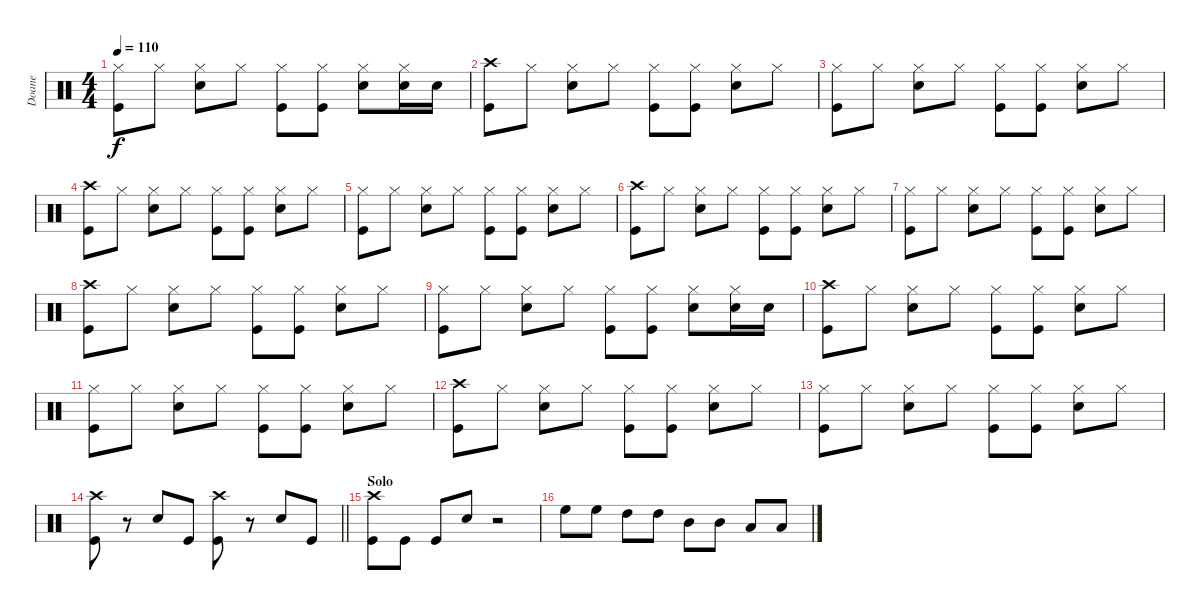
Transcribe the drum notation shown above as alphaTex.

\track ("Doane" "Doane") {instrument percussion}
\staff {score}
\articulation defaults
\ts (4 4)
\tempo 110
\clef neutral
\ks c
("Hi-Hat (closed)" "Kick (hit)").8{dy f} "Hi-Hat (closed)".8 ("Hi-Hat (closed)" "Snare (hit) 2").8 "Hi-Hat (closed)".8 ("Hi-Hat (closed)" "Kick (hit)").8 ("Hi-Hat (closed)" "Kick (hit)").8 ("Hi-Hat (closed)" "Snare (hit) 2").8 ("Hi-Hat (closed)" "Snare (hit) 2").16 "Snare (hit) 2".16 |
("Crash high (hit)" "Kick (hit)").8 "Hi-Hat (closed)".8 ("Hi-Hat (closed)" "Snare (hit) 2").8 "Hi-Hat (closed)".8 ("Hi-Hat (closed)" "Kick (hit)").8 ("Hi-Hat (closed)" "Kick (hit)").8 ("Hi-Hat (closed)" "Snare (hit) 2").8 "Hi-Hat (closed)".8 |
("Hi-Hat (closed)" "Kick (hit)").8 "Hi-Hat (closed)".8 ("Hi-Hat (closed)" "Snare (hit) 2").8 "Hi-Hat (closed)".8 ("Hi-Hat (closed)" "Kick (hit)").8 ("Hi-Hat (closed)" "Kick (hit)").8 ("Hi-Hat (closed)" "Snare (hit) 2").8 "Hi-Hat (closed)".8 |
("Crash high (hit)" "Kick (hit)").8 "Hi-Hat (closed)".8 ("Hi-Hat (closed)" "Snare (hit) 2").8 "Hi-Hat (closed)".8 ("Hi-Hat (closed)" "Kick (hit)").8 ("Hi-Hat (closed)" "Kick (hit)").8 ("Hi-Hat (closed)" "Snare (hit) 2").8 "Hi-Hat (closed)".8 |
("Hi-Hat (closed)" "Kick (hit)").8 "Hi-Hat (closed)".8 ("Hi-Hat (closed)" "Snare (hit) 2").8 "Hi-Hat (closed)".8 ("Hi-Hat (closed)" "Kick (hit)").8 ("Hi-Hat (closed)" "Kick (hit)").8 ("Hi-Hat (closed)" "Snare (hit) 2").8 "Hi-Hat (closed)".8 |
("Crash high (hit)" "Kick (hit)").8 "Hi-Hat (closed)".8 ("Hi-Hat (closed)" "Snare (hit) 2").8 "Hi-Hat (closed)".8 ("Hi-Hat (closed)" "Kick (hit)").8 ("Hi-Hat (closed)" "Kick (hit)").8 ("Hi-Hat (closed)" "Snare (hit) 2").8 "Hi-Hat (closed)".8 |
("Hi-Hat (closed)" "Kick (hit)").8 "Hi-Hat (closed)".8 ("Hi-Hat (closed)" "Snare (hit) 2").8 "Hi-Hat (closed)".8 ("Hi-Hat (closed)" "Kick (hit)").8 ("Hi-Hat (closed)" "Kick (hit)").8 ("Hi-Hat (closed)" "Snare (hit) 2").8 "Hi-Hat (closed)".8 |
("Crash high (hit)" "Kick (hit)").8 "Hi-Hat (closed)".8 ("Hi-Hat (closed)" "Snare (hit) 2").8 "Hi-Hat (closed)".8 ("Hi-Hat (closed)" "Kick (hit)").8 ("Hi-Hat (closed)" "Kick (hit)").8 ("Hi-Hat (closed)" "Snare (hit) 2").8 "Hi-Hat (closed)".8 |
("Hi-Hat (closed)" "Kick (hit)").8 "Hi-Hat (closed)".8 ("Hi-Hat (closed)" "Snare (hit) 2").8 "Hi-Hat (closed)".8 ("Hi-Hat (closed)" "Kick (hit)").8 ("Hi-Hat (closed)" "Kick (hit)").8 ("Hi-Hat (closed)" "Snare (hit) 2").8 ("Hi-Hat (closed)" "Snare (hit) 2").16 "Snare (hit) 2".16 |
("Crash high (hit)" "Kick (hit)").8 "Hi-Hat (closed)".8 ("Hi-Hat (closed)" "Snare (hit) 2").8 "Hi-Hat (closed)".8 ("Hi-Hat (closed)" "Kick (hit)").8 ("Hi-Hat (closed)" "Kick (hit)").8 ("Hi-Hat (closed)" "Snare (hit) 2").8 "Hi-Hat (closed)".8 |
("Hi-Hat (closed)" "Kick (hit)").8 "Hi-Hat (closed)".8 ("Hi-Hat (closed)" "Snare (hit) 2").8 "Hi-Hat (closed)".8 ("Hi-Hat (closed)" "Kick (hit)").8 ("Hi-Hat (closed)" "Kick (hit)").8 ("Hi-Hat (closed)" "Snare (hit) 2").8 "Hi-Hat (closed)".8 |
("Crash high (hit)" "Kick (hit)").8 "Hi-Hat (closed)".8 ("Hi-Hat (closed)" "Snare (hit) 2").8 "Hi-Hat (closed)".8 ("Hi-Hat (closed)" "Kick (hit)").8 ("Hi-Hat (closed)" "Kick (hit)").8 ("Hi-Hat (closed)" "Snare (hit) 2").8 "Hi-Hat (closed)".8 |
("Hi-Hat (closed)" "Kick (hit)").8 "Hi-Hat (closed)".8 ("Hi-Hat (closed)" "Snare (hit) 2").8 "Hi-Hat (closed)".8 ("Hi-Hat (closed)" "Kick (hit)").8 ("Hi-Hat (closed)" "Kick (hit)").8 ("Hi-Hat (closed)" "Snare (hit) 2").8 "Hi-Hat (closed)".8 |
\barLineRight lightlight
("Crash high (hit)" "Kick (hit)").8 r.8 "Snare (hit) 2".8 "Kick (hit)".8 ("Crash high (hit)" "Kick (hit)").8 r.8 "Snare (hit) 2".8 "Kick (hit)".8 |
\section ("" "Solo")
("Crash high (hit)" "Kick (hit)").8 "Kick (hit)".8 "Kick (hit)".8 "Snare (hit) 2".8 r.2 |
"High Floor Tom (hit)".8 "High Floor Tom (hit)".8 "High Tom (hit)".8 "High Tom (hit)".8 "Mid Tom (hit)".8 "Mid Tom (hit)".8 "Low Tom (hit)".8 "Low Tom (hit)".8
